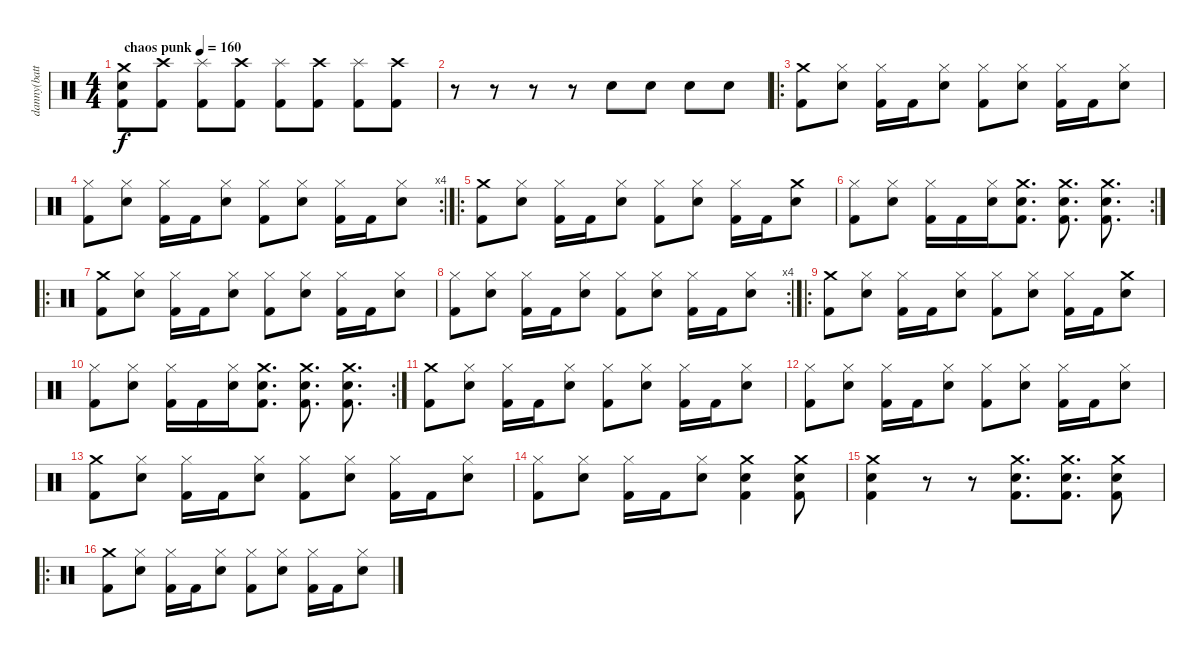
\track ("danny(batterie)" "danny(batt") {instrument percussion}
\staff {score}
\articulation defaults
\ts (4 4)
\tempo (160 "chaos punk")
\clef neutral
\ks c
("Crash medium (hit)" "Snare (hit) 2" "Kick (hit) 2").8{dy f} ("Crash high (hit)" "Kick (hit) 2").8 ("Splash (hit)" "Kick (hit) 2").8 ("Crash high (hit)" "Kick (hit) 2").8 ("Splash (hit)" "Kick (hit) 2").8 ("Crash high (hit)" "Kick (hit) 2").8 ("Splash (hit)" "Kick (hit) 2").8 ("Crash high (hit)" "Kick (hit) 2").8 |
r.8 r.8 r.8 r.8 "Snare (hit) 2".8 "Snare (hit) 2".8 "Snare (hit) 2".8 "Snare (hit) 2".8 |
\ro
("Crash medium (hit)" "Kick (hit) 2").8 ("Hi-Hat (closed)" "Snare (hit) 2").8 ("Hi-Hat (closed)" "Kick (hit) 2").16 "Kick (hit) 2".16 ("Hi-Hat (closed)" "Snare (hit) 2").8 ("Hi-Hat (closed)" "Kick (hit) 2").8 ("Hi-Hat (closed)" "Snare (hit) 2").8 ("Hi-Hat (closed)" "Kick (hit) 2").16 "Kick (hit) 2".16 ("Hi-Hat (closed)" "Snare (hit) 2").8 |
\rc 4
("Hi-Hat (closed)" "Kick (hit) 2").8 ("Hi-Hat (closed)" "Snare (hit) 2").8 ("Hi-Hat (closed)" "Kick (hit) 2").16 "Kick (hit) 2".16 ("Hi-Hat (closed)" "Snare (hit) 2").8 ("Hi-Hat (closed)" "Kick (hit) 2").8 ("Hi-Hat (closed)" "Snare (hit) 2").8 ("Hi-Hat (closed)" "Kick (hit) 2").16 "Kick (hit) 2".16 ("Hi-Hat (closed)" "Snare (hit) 2").8 |
\ro
("Crash medium (hit)" "Kick (hit) 2").8 ("Hi-Hat (closed)" "Snare (hit) 2").8 ("Hi-Hat (closed)" "Kick (hit) 2").16 "Kick (hit) 2".16 ("Hi-Hat (closed)" "Snare (hit) 2").8 ("Hi-Hat (closed)" "Kick (hit) 2").8 ("Hi-Hat (closed)" "Snare (hit) 2").8 ("Hi-Hat (closed)" "Kick (hit) 2").16 "Kick (hit) 2".16 ("Crash medium (hit)" "Snare (hit) 2").8 |
\rc 2
("Hi-Hat (closed)" "Kick (hit) 2").8 ("Hi-Hat (closed)" "Snare (hit) 2").8 ("Hi-Hat (closed)" "Kick (hit) 2").16 "Kick (hit) 2".16 ("Hi-Hat (closed)" "Snare (hit) 2").16 ("Crash medium (hit)" "Snare (hit) 2" "Kick (hit) 2").8{d} ("Crash medium (hit)" "Snare (hit) 2" "Kick (hit) 2").8{d} ("Crash medium (hit)" "Snare (hit) 2" "Kick (hit) 2").8{d} |
\ro
("Crash medium (hit)" "Kick (hit) 2").8 ("Hi-Hat (closed)" "Snare (hit) 2").8 ("Hi-Hat (closed)" "Kick (hit) 2").16 "Kick (hit) 2".16 ("Hi-Hat (closed)" "Snare (hit) 2").8 ("Hi-Hat (closed)" "Kick (hit) 2").8 ("Hi-Hat (closed)" "Snare (hit) 2").8 ("Hi-Hat (closed)" "Kick (hit) 2").16 "Kick (hit) 2".16 ("Hi-Hat (closed)" "Snare (hit) 2").8 |
\rc 4
("Hi-Hat (closed)" "Kick (hit) 2").8 ("Hi-Hat (closed)" "Snare (hit) 2").8 ("Hi-Hat (closed)" "Kick (hit) 2").16 "Kick (hit) 2".16 ("Hi-Hat (closed)" "Snare (hit) 2").8 ("Hi-Hat (closed)" "Kick (hit) 2").8 ("Hi-Hat (closed)" "Snare (hit) 2").8 ("Hi-Hat (closed)" "Kick (hit) 2").16 "Kick (hit) 2".16 ("Hi-Hat (closed)" "Snare (hit) 2").8 |
\ro
("Crash medium (hit)" "Kick (hit) 2").8 ("Hi-Hat (closed)" "Snare (hit) 2").8 ("Hi-Hat (closed)" "Kick (hit) 2").16 "Kick (hit) 2".16 ("Hi-Hat (closed)" "Snare (hit) 2").8 ("Hi-Hat (closed)" "Kick (hit) 2").8 ("Hi-Hat (closed)" "Snare (hit) 2").8 ("Hi-Hat (closed)" "Kick (hit) 2").16 "Kick (hit) 2".16 ("Crash medium (hit)" "Snare (hit) 2").8 |
\rc 2
("Hi-Hat (closed)" "Kick (hit) 2").8 ("Hi-Hat (closed)" "Snare (hit) 2").8 ("Hi-Hat (closed)" "Kick (hit) 2").16 "Kick (hit) 2".16 ("Hi-Hat (closed)" "Snare (hit) 2").16 ("Crash medium (hit)" "Snare (hit) 2" "Kick (hit) 2").8{d} ("Crash medium (hit)" "Snare (hit) 2" "Kick (hit) 2").8{d} ("Crash medium (hit)" "Snare (hit) 2" "Kick (hit) 2").8{d} |
("Crash medium (hit)" "Kick (hit) 2").8 ("Hi-Hat (closed)" "Snare (hit) 2").8 ("Hi-Hat (closed)" "Kick (hit) 2").16 "Kick (hit) 2".16 ("Hi-Hat (closed)" "Snare (hit) 2").8 ("Hi-Hat (closed)" "Kick (hit) 2").8 ("Hi-Hat (closed)" "Snare (hit) 2").8 ("Hi-Hat (closed)" "Kick (hit) 2").16 "Kick (hit) 2".16 ("Hi-Hat (closed)" "Snare (hit) 2").8 |
("Hi-Hat (closed)" "Kick (hit) 2").8 ("Hi-Hat (closed)" "Snare (hit) 2").8 ("Hi-Hat (closed)" "Kick (hit) 2").16 "Kick (hit) 2".16 ("Hi-Hat (closed)" "Snare (hit) 2").8 ("Hi-Hat (closed)" "Kick (hit) 2").8 ("Hi-Hat (closed)" "Snare (hit) 2").8 ("Hi-Hat (closed)" "Kick (hit) 2").16 "Kick (hit) 2".16 ("Hi-Hat (closed)" "Snare (hit) 2").8 |
("Crash medium (hit)" "Kick (hit) 2").8 ("Hi-Hat (closed)" "Snare (hit) 2").8 ("Hi-Hat (closed)" "Kick (hit) 2").16 "Kick (hit) 2".16 ("Hi-Hat (closed)" "Snare (hit) 2").8 ("Hi-Hat (closed)" "Kick (hit) 2").8 ("Hi-Hat (closed)" "Snare (hit) 2").8 ("Hi-Hat (closed)" "Kick (hit) 2").16 "Kick (hit) 2".16 ("Hi-Hat (closed)" "Snare (hit) 2").8 |
("Hi-Hat (closed)" "Kick (hit) 2").8 ("Hi-Hat (closed)" "Snare (hit) 2").8 ("Hi-Hat (closed)" "Kick (hit) 2").16 "Kick (hit) 2".16 ("Hi-Hat (closed)" "Snare (hit) 2").8 ("Crash medium (hit)" "Snare (hit) 2" "Kick (hit) 2").4 ("Crash medium (hit)" "Snare (hit) 2" "Kick (hit) 2").8 |
("Crash medium (hit)" "Snare (hit) 2" "Kick (hit) 2").4 r.8 r.8 ("Crash medium (hit)" "Snare (hit) 2" "Kick (hit) 2").8{d} ("Crash medium (hit)" "Snare (hit) 2" "Kick (hit) 2").8{d} ("Crash medium (hit)" "Snare (hit) 2" "Kick (hit) 2").8 |
\ro
("Crash medium (hit)" "Kick (hit) 2").8 ("Hi-Hat (closed)" "Snare (hit) 2").8 ("Hi-Hat (closed)" "Kick (hit) 2").16 "Kick (hit) 2".16 ("Hi-Hat (closed)" "Snare (hit) 2").8 ("Hi-Hat (closed)" "Kick (hit) 2").8 ("Hi-Hat (closed)" "Snare (hit) 2").8 ("Hi-Hat (closed)" "Kick (hit) 2").16 "Kick (hit) 2".16 ("Hi-Hat (closed)" "Snare (hit) 2").8
